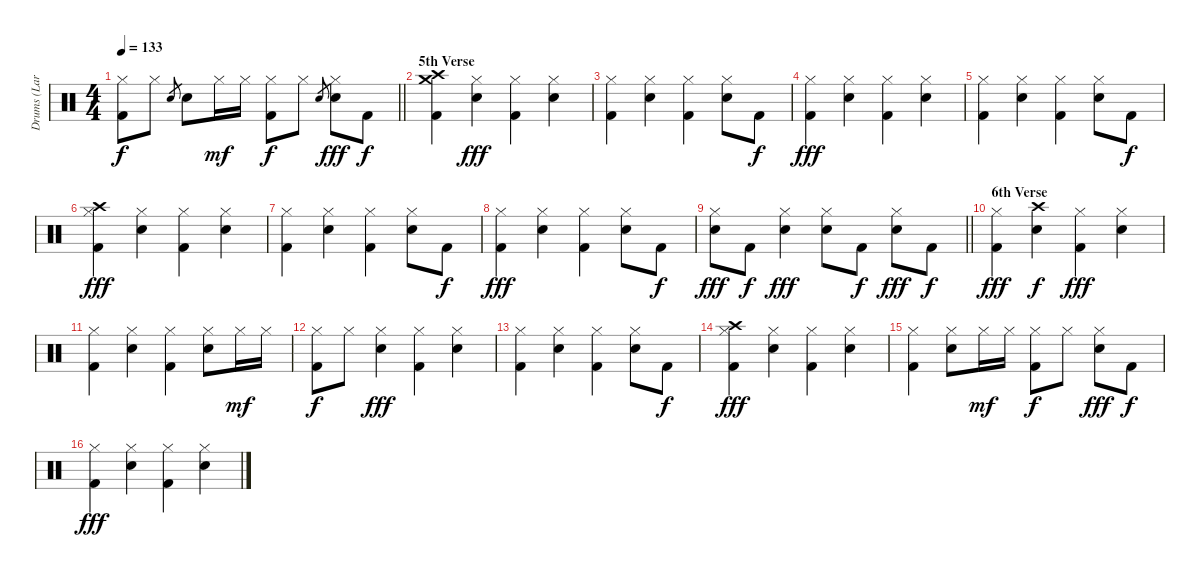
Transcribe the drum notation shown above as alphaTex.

\track ("Drums (Lars)" "Drums (Lar") {instrument percussion}
\staff {score}
\articulation defaults
\ts (4 4)
\tempo 133
\clef neutral
\barLineRight lightlight
\ks c
("Hi-Hat (closed)" "Kick (hit) 2").8{dy f} "Hi-Hat (closed)".8 "Snare (hit) 2".8{gr} "Snare (hit) 2".8 "Hi-Hat (closed)".16{dy mf} "Hi-Hat (closed)".16 ("Hi-Hat (closed)" "Kick (hit) 2").8{dy f} "Hi-Hat (closed)".8 "Snare (hit) 2".8{gr} ("Hi-Hat (closed)" "Snare (hit) 2").8{dy fff} "Kick (hit) 2".8{dy f} |
\section ("" "5th Verse")
("Crash high (hit)" "Crash medium (hit)" "Kick (hit) 2").4 ("Hi-Hat (closed)" "Snare (hit) 2").4{dy fff} ("Hi-Hat (closed)" "Kick (hit) 2").4 ("Hi-Hat (closed)" "Snare (hit) 2").4 |
("Hi-Hat (closed)" "Kick (hit) 2").4 ("Hi-Hat (closed)" "Snare (hit) 2").4 ("Hi-Hat (closed)" "Kick (hit) 2").4 ("Hi-Hat (closed)" "Snare (hit) 2").8 "Kick (hit) 2".8{dy f} |
("Hi-Hat (closed)" "Kick (hit) 2").4{dy fff} ("Hi-Hat (closed)" "Snare (hit) 2").4 ("Hi-Hat (closed)" "Kick (hit) 2").4 ("Hi-Hat (closed)" "Snare (hit) 2").4 |
("Hi-Hat (closed)" "Kick (hit) 2").4 ("Hi-Hat (closed)" "Snare (hit) 2").4 ("Hi-Hat (closed)" "Kick (hit) 2").4 ("Hi-Hat (closed)" "Snare (hit) 2").8 "Kick (hit) 2".8{dy f} |
("Crash high (hit)" "Hi-Hat (closed)" "Kick (hit) 2").4{dy fff} ("Hi-Hat (closed)" "Snare (hit) 2").4 ("Hi-Hat (closed)" "Kick (hit) 2").4 ("Hi-Hat (closed)" "Snare (hit) 2").4 |
("Hi-Hat (closed)" "Kick (hit) 2").4 ("Hi-Hat (closed)" "Snare (hit) 2").4 ("Hi-Hat (closed)" "Kick (hit) 2").4 ("Hi-Hat (closed)" "Snare (hit) 2").8 "Kick (hit) 2".8{dy f} |
("Hi-Hat (closed)" "Kick (hit) 2").4{dy fff} ("Hi-Hat (closed)" "Snare (hit) 2").4 ("Hi-Hat (closed)" "Kick (hit) 2").4 ("Hi-Hat (closed)" "Snare (hit) 2").8 "Kick (hit) 2".8{dy f} |
\barLineRight lightlight
("Hi-Hat (closed)" "Snare (hit) 2").8{dy fff} "Kick (hit) 2".8{dy f} ("Hi-Hat (closed)" "Snare (hit) 2").4{dy fff} ("Hi-Hat (closed)" "Snare (hit) 2").8 "Kick (hit) 2".8{dy f} ("Hi-Hat (closed)" "Snare (hit) 2").8{dy fff} "Kick (hit) 2".8{dy f} |
\section ("" "6th Verse")
("Hi-Hat (closed)" "Kick (hit) 2").4{dy fff} ("Crash high (hit)" "Snare (hit) 2").4{dy f} ("Hi-Hat (closed)" "Kick (hit) 2").4{dy fff} ("Hi-Hat (closed)" "Snare (hit) 2").4 |
("Hi-Hat (closed)" "Kick (hit) 2").4 ("Hi-Hat (closed)" "Snare (hit) 2").4 ("Hi-Hat (closed)" "Kick (hit) 2").4 ("Hi-Hat (closed)" "Snare (hit) 2").8 "Hi-Hat (closed)".16{dy mf} "Hi-Hat (closed)".16 |
("Hi-Hat (closed)" "Kick (hit) 2").8{dy f} "Hi-Hat (closed)".8 ("Hi-Hat (closed)" "Snare (hit) 2").4{dy fff} ("Hi-Hat (closed)" "Kick (hit) 2").4 ("Hi-Hat (closed)" "Snare (hit) 2").4 |
("Hi-Hat (closed)" "Kick (hit) 2").4 ("Hi-Hat (closed)" "Snare (hit) 2").4 ("Hi-Hat (closed)" "Kick (hit) 2").4 ("Hi-Hat (closed)" "Snare (hit) 2").8 "Kick (hit) 2".8{dy f} |
("Crash high (hit)" "Hi-Hat (closed)" "Kick (hit) 2").4{dy fff} ("Hi-Hat (closed)" "Snare (hit) 2").4 ("Hi-Hat (closed)" "Kick (hit) 2").4 ("Hi-Hat (closed)" "Snare (hit) 2").4 |
("Hi-Hat (closed)" "Kick (hit) 2").4 ("Hi-Hat (closed)" "Snare (hit) 2").8 "Hi-Hat (closed)".16{dy mf} "Hi-Hat (closed)".16 ("Hi-Hat (closed)" "Kick (hit) 2").8{dy f} "Hi-Hat (closed)".8 ("Hi-Hat (closed)" "Snare (hit) 2").8{dy fff} "Kick (hit) 2".8{dy f} |
("Hi-Hat (closed)" "Kick (hit) 2").4{dy fff} ("Hi-Hat (closed)" "Snare (hit) 2").4 ("Hi-Hat (closed)" "Kick (hit) 2").4 ("Hi-Hat (closed)" "Snare (hit) 2").4
